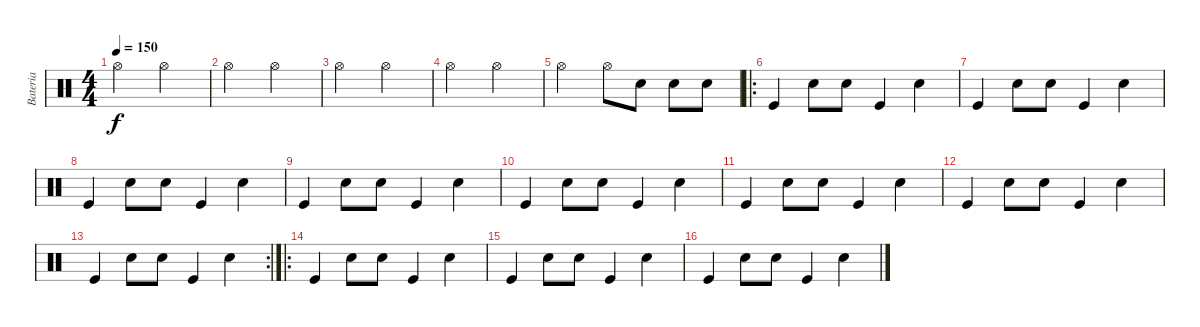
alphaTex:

\track ("Bateria" "Bateria") {instrument percussion}
\staff {score}
\articulation defaults
\ts (4 4)
\tempo 150
\clef neutral
\ks c "Hi-Hat (open)".2{dy f} "Hi-Hat (open)".2
|
"Hi-Hat (open)".2 "Hi-Hat (open)".2 |
"Hi-Hat (open)".2 "Hi-Hat (open)".2 |
"Hi-Hat (open)".2 "Hi-Hat (open)".2 |
"Hi-Hat (open)".2 "Hi-Hat (open)".8 "Snare (hit) 2".8 "Snare (hit) 2".8 "Snare (hit) 2".8 |
\ro "Kick (hit)".4 "Snare (hit) 2".8 "Snare (hit) 2".8 "Kick (hit)".4 "Snare (hit) 2".4
|
"Kick (hit)".4 "Snare (hit) 2".8 "Snare (hit) 2".8 "Kick (hit)".4 "Snare (hit) 2".4 |
"Kick (hit)".4 "Snare (hit) 2".8 "Snare (hit) 2".8 "Kick (hit)".4 "Snare (hit) 2".4 |
"Kick (hit)".4 "Snare (hit) 2".8 "Snare (hit) 2".8 "Kick (hit)".4 "Snare (hit) 2".4 |
"Kick (hit)".4 "Snare (hit) 2".8 "Snare (hit) 2".8 "Kick (hit)".4 "Snare (hit) 2".4 |
"Kick (hit)".4 "Snare (hit) 2".8 "Snare (hit) 2".8 "Kick (hit)".4 "Snare (hit) 2".4 |
"Kick (hit)".4 "Snare (hit) 2".8 "Snare (hit) 2".8 "Kick (hit)".4 "Snare (hit) 2".4 |
\rc 2 "Kick (hit)".4 "Snare (hit) 2".8 "Snare (hit) 2".8 "Kick (hit)".4 "Snare (hit) 2".4
|
\ro "Kick (hit)".4 "Snare (hit) 2".8 "Snare (hit) 2".8 "Kick (hit)".4 "Snare (hit) 2".4
|
"Kick (hit)".4 "Snare (hit) 2".8 "Snare (hit) 2".8 "Kick (hit)".4 "Snare (hit) 2".4 |
"Kick (hit)".4 "Snare (hit) 2".8 "Snare (hit) 2".8 "Kick (hit)".4 "Snare (hit) 2".4
